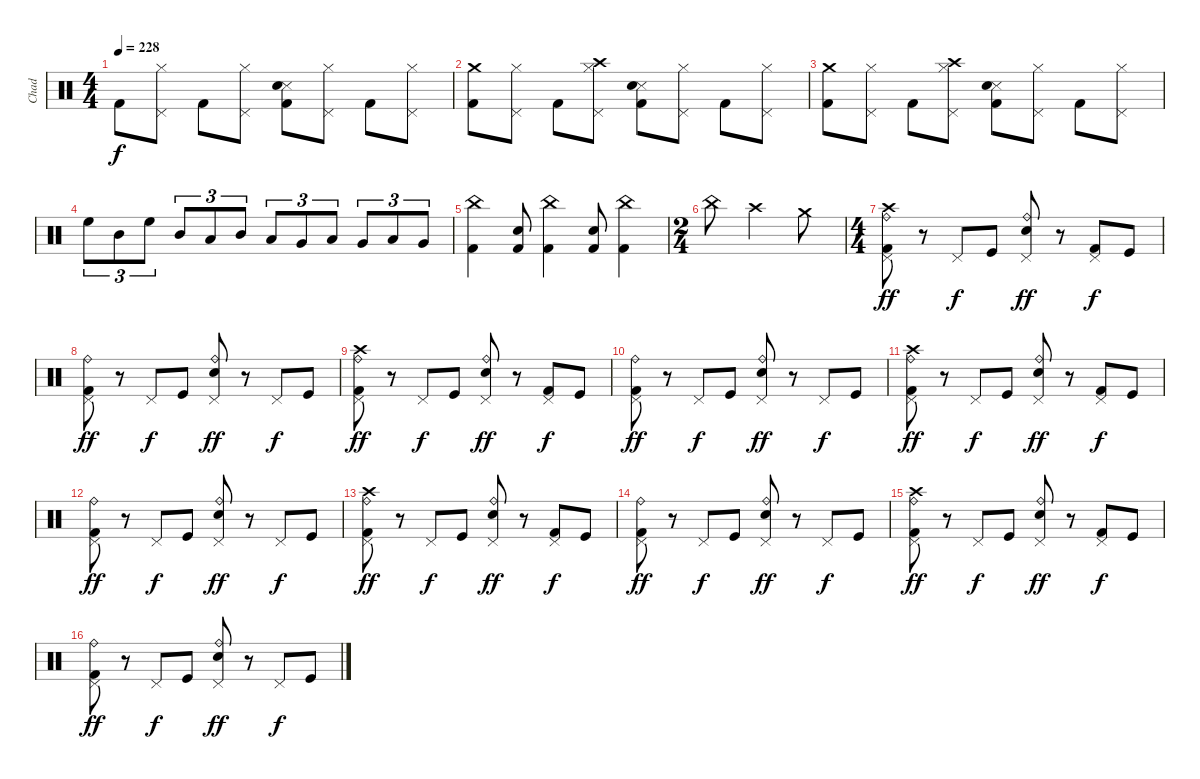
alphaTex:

\track ("Chad" "Chad") {instrument percussion}
\staff {score}
\articulation defaults
\ts (4 4)
\tempo 228
\clef neutral
\ks c "Kick (hit) 2".8{dy f}
("Hi-Hat (closed)" "Pedal Hi-Hat (hit)").8 "Kick (hit) 2".8 ("Hi-Hat (closed)" "Pedal Hi-Hat (hit)").8 ("Snare (side stick) 3" "Electric Snare (hit)" "Kick (hit) 2").8 ("Hi-Hat (closed)" "Pedal Hi-Hat (hit)").8 "Kick (hit) 2".8 ("Hi-Hat (closed)" "Pedal Hi-Hat (hit)").8 |
("Crash medium (hit)" "Kick (hit) 2").8 ("Hi-Hat (closed)" "Pedal Hi-Hat (hit)").8 "Kick (hit) 2".8 ("Crash high (hit)" "Hi-Hat (closed)" "Pedal Hi-Hat (hit)").8 ("Snare (side stick) 3" "Electric Snare (hit)" "Kick (hit) 2").8 ("Hi-Hat (closed)" "Pedal Hi-Hat (hit)").8 "Kick (hit) 2".8 ("Hi-Hat (closed)" "Pedal Hi-Hat (hit)").8 |
("Crash medium (hit)" "Kick (hit) 2").8 ("Hi-Hat (closed)" "Pedal Hi-Hat (hit)").8 "Kick (hit) 2".8 ("Crash high (hit)" "Hi-Hat (closed)" "Pedal Hi-Hat (hit)").8 ("Snare (side stick) 3" "Electric Snare (hit)" "Kick (hit) 2").8 ("Hi-Hat (closed)" "Pedal Hi-Hat (hit)").8 "Kick (hit) 2".8 ("Hi-Hat (closed)" "Pedal Hi-Hat (hit)").8 |
"High Floor Tom (hit)".8{tu (3 2)} "Mid Tom (hit)".8{tu (3 2)} "High Floor Tom (hit)".8{tu (3 2)} "Mid Tom (hit)".8{tu (3 2)} "Low Tom (hit)".8{tu (3 2)} "Mid Tom (hit)".8{tu (3 2)} "Low Tom (hit)".8{tu (3 2)} "Very Low Tom (hit)".8{tu (3 2)} "Low Tom (hit)".8{tu (3 2)} "Very Low Tom (hit)".8{tu (3 2)} "Low Floor Tom (hit)".8{tu (3 2)} "Very Low Tom (hit)".8{tu (3 2)} |
("China (hit)" "Kick (hit) 2").4 ("Electric Snare (hit)" "Kick (hit) 2").8 ("China (hit)" "Kick (hit) 2").4 ("Electric Snare (hit)" "Kick (hit) 2").8 ("China (hit)" "Kick (hit) 2").4 |
\ts (2 4)
"China (hit)".8 "Crash high (hit)".4 "Crash medium (hit)".8 |
\ts (4 4)
("Crash high (hit)" "Ride (bell)" "Kick (hit) 2" "Pedal Hi-Hat (hit)").8{dy ff} r.8 "Pedal Hi-Hat (hit)".8{dy f} "Kick (hit)".8 ("Ride (bell)" "Electric Snare (hit)" "Pedal Hi-Hat (hit)").8{dy ff} r.8 ("Kick (hit) 2" "Pedal Hi-Hat (hit)").8{dy f} "Kick (hit)".8 |
("Ride (bell)" "Kick (hit) 2" "Pedal Hi-Hat (hit)").8{dy ff} r.8 "Pedal Hi-Hat (hit)".8{dy f} "Kick (hit)".8 ("Ride (bell)" "Electric Snare (hit)" "Pedal Hi-Hat (hit)").8{dy ff} r.8 "Pedal Hi-Hat (hit)".8{dy f} "Kick (hit)".8 |
("Crash high (hit)" "Ride (bell)" "Kick (hit) 2" "Pedal Hi-Hat (hit)").8{dy ff} r.8 "Pedal Hi-Hat (hit)".8{dy f} "Kick (hit)".8 ("Ride (bell)" "Electric Snare (hit)" "Pedal Hi-Hat (hit)").8{dy ff} r.8 ("Kick (hit) 2" "Pedal Hi-Hat (hit)").8{dy f} "Kick (hit)".8 |
("Ride (bell)" "Kick (hit) 2" "Pedal Hi-Hat (hit)").8{dy ff} r.8 "Pedal Hi-Hat (hit)".8{dy f} "Kick (hit)".8 ("Ride (bell)" "Electric Snare (hit)" "Pedal Hi-Hat (hit)").8{dy ff} r.8 "Pedal Hi-Hat (hit)".8{dy f} "Kick (hit)".8 |
("Crash high (hit)" "Ride (bell)" "Kick (hit) 2" "Pedal Hi-Hat (hit)").8{dy ff} r.8 "Pedal Hi-Hat (hit)".8{dy f} "Kick (hit)".8 ("Ride (bell)" "Electric Snare (hit)" "Pedal Hi-Hat (hit)").8{dy ff} r.8 ("Kick (hit) 2" "Pedal Hi-Hat (hit)").8{dy f} "Kick (hit)".8 |
("Ride (bell)" "Kick (hit) 2" "Pedal Hi-Hat (hit)").8{dy ff} r.8 "Pedal Hi-Hat (hit)".8{dy f} "Kick (hit)".8 ("Ride (bell)" "Electric Snare (hit)" "Pedal Hi-Hat (hit)").8{dy ff} r.8 "Pedal Hi-Hat (hit)".8{dy f} "Kick (hit)".8 |
("Crash high (hit)" "Ride (bell)" "Kick (hit) 2" "Pedal Hi-Hat (hit)").8{dy ff} r.8 "Pedal Hi-Hat (hit)".8{dy f} "Kick (hit)".8 ("Ride (bell)" "Electric Snare (hit)" "Pedal Hi-Hat (hit)").8{dy ff} r.8 ("Kick (hit) 2" "Pedal Hi-Hat (hit)").8{dy f} "Kick (hit)".8 |
("Ride (bell)" "Kick (hit) 2" "Pedal Hi-Hat (hit)").8{dy ff} r.8 "Pedal Hi-Hat (hit)".8{dy f} "Kick (hit)".8 ("Ride (bell)" "Electric Snare (hit)" "Pedal Hi-Hat (hit)").8{dy ff} r.8 "Pedal Hi-Hat (hit)".8{dy f} "Kick (hit)".8 |
("Crash high (hit)" "Ride (bell)" "Kick (hit) 2" "Pedal Hi-Hat (hit)").8{dy ff} r.8 "Pedal Hi-Hat (hit)".8{dy f} "Kick (hit)".8 ("Ride (bell)" "Electric Snare (hit)" "Pedal Hi-Hat (hit)").8{dy ff} r.8 ("Kick (hit) 2" "Pedal Hi-Hat (hit)").8{dy f} "Kick (hit)".8 |
("Ride (bell)" "Kick (hit) 2" "Pedal Hi-Hat (hit)").8{dy ff} r.8 "Pedal Hi-Hat (hit)".8{dy f} "Kick (hit)".8 ("Ride (bell)" "Electric Snare (hit)" "Pedal Hi-Hat (hit)").8{dy ff} r.8 "Pedal Hi-Hat (hit)".8{dy f} "Kick (hit)".8
